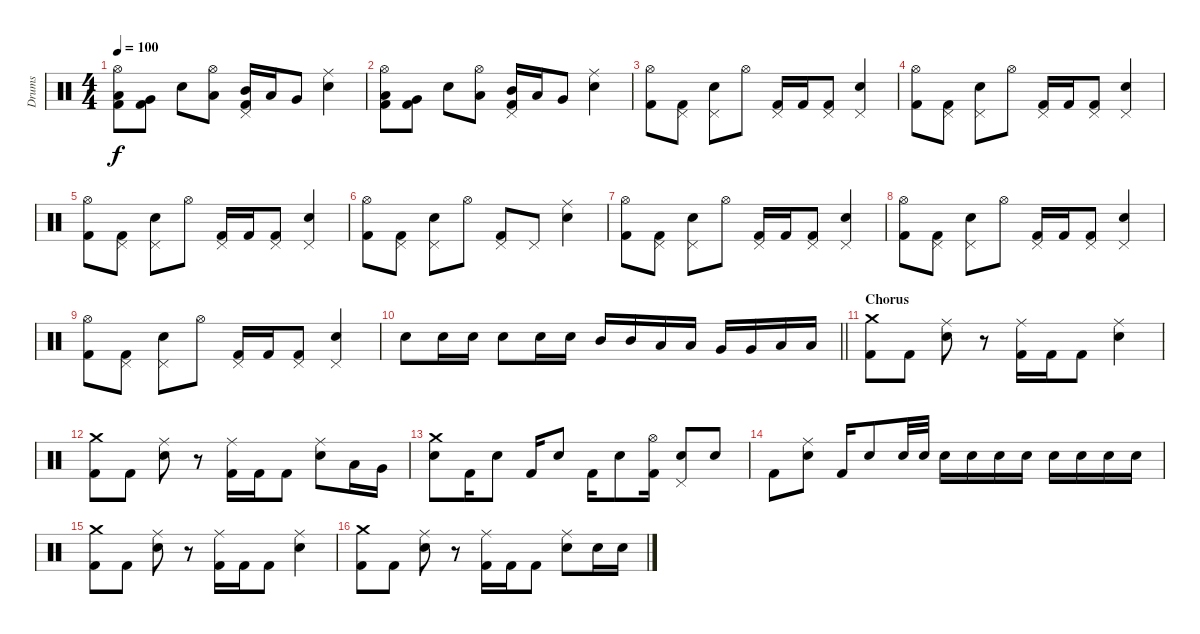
\track ("Drums" "Drums") {instrument percussion}
\staff {score}
\articulation defaults
\ts (4 4)
\tempo 100
\clef neutral
\ks c
("Hi-Hat (open)" "Low Tom (hit)" "Kick (hit) 2").8{dy f} ("Very Low Tom (hit)" "Kick (hit) 2").8 "Snare (hit) 2".8 ("Hi-Hat (open)" "Low Floor Tom (hit)").8 ("Pedal Hi-Hat (hit)" "Mid Tom (hit)" "Kick (hit) 2").16 "Low Tom (hit)".16 "Very Low Tom (hit)".8 ("Ride (middle)" "Snare (hit) 2").4 |
("Hi-Hat (open)" "Low Tom (hit)" "Kick (hit) 2").8 ("Very Low Tom (hit)" "Kick (hit) 2").8 "Snare (hit) 2".8 ("Hi-Hat (open)" "Low Floor Tom (hit)").8 ("Pedal Hi-Hat (hit)" "Mid Tom (hit)" "Kick (hit) 2").16 "Low Tom (hit)".16 "Very Low Tom (hit)".8 ("Ride (middle)" "Snare (hit) 2").4 |
("Hi-Hat (open)" "Kick (hit) 2").8 ("Pedal Hi-Hat (hit)" "Kick (hit) 2").8 ("Pedal Hi-Hat (hit)" "Snare (hit) 2").8 "Hi-Hat (open)".8 ("Pedal Hi-Hat (hit)" "Kick (hit) 2").16 "Kick (hit) 2".16 ("Pedal Hi-Hat (hit)" "Kick (hit) 2").8 ("Pedal Hi-Hat (hit)" "Snare (hit) 2").4 |
("Hi-Hat (open)" "Kick (hit) 2").8 ("Pedal Hi-Hat (hit)" "Kick (hit) 2").8 ("Pedal Hi-Hat (hit)" "Snare (hit) 2").8 "Hi-Hat (open)".8 ("Pedal Hi-Hat (hit)" "Kick (hit) 2").16 "Kick (hit) 2".16 ("Pedal Hi-Hat (hit)" "Kick (hit) 2").8 ("Pedal Hi-Hat (hit)" "Snare (hit) 2").4 |
("Hi-Hat (open)" "Kick (hit) 2").8 ("Pedal Hi-Hat (hit)" "Kick (hit) 2").8 ("Pedal Hi-Hat (hit)" "Snare (hit) 2").8 "Hi-Hat (open)".8 ("Pedal Hi-Hat (hit)" "Kick (hit) 2").16 "Kick (hit) 2".16 ("Pedal Hi-Hat (hit)" "Kick (hit) 2").8 ("Pedal Hi-Hat (hit)" "Snare (hit) 2").4 |
("Hi-Hat (open)" "Kick (hit) 2").8 ("Pedal Hi-Hat (hit)" "Kick (hit) 2").8 ("Pedal Hi-Hat (hit)" "Snare (hit) 2").8 "Hi-Hat (open)".8 ("Pedal Hi-Hat (hit)" "Kick (hit) 2").8 "Pedal Hi-Hat (hit)".8 ("Ride (middle)" "Snare (hit) 2").4 |
("Hi-Hat (open)" "Kick (hit) 2").8 ("Pedal Hi-Hat (hit)" "Kick (hit) 2").8 ("Pedal Hi-Hat (hit)" "Snare (hit) 2").8 "Hi-Hat (open)".8 ("Pedal Hi-Hat (hit)" "Kick (hit) 2").16 "Kick (hit) 2".16 ("Pedal Hi-Hat (hit)" "Kick (hit) 2").8 ("Pedal Hi-Hat (hit)" "Snare (hit) 2").4 |
("Hi-Hat (open)" "Kick (hit) 2").8 ("Pedal Hi-Hat (hit)" "Kick (hit) 2").8 ("Pedal Hi-Hat (hit)" "Snare (hit) 2").8 "Hi-Hat (open)".8 ("Pedal Hi-Hat (hit)" "Kick (hit) 2").16 "Kick (hit) 2".16 ("Pedal Hi-Hat (hit)" "Kick (hit) 2").8 ("Pedal Hi-Hat (hit)" "Snare (hit) 2").4 |
("Hi-Hat (open)" "Kick (hit) 2").8 ("Pedal Hi-Hat (hit)" "Kick (hit) 2").8 ("Pedal Hi-Hat (hit)" "Snare (hit) 2").8 "Hi-Hat (open)".8 ("Pedal Hi-Hat (hit)" "Kick (hit) 2").16 "Kick (hit) 2".16 ("Pedal Hi-Hat (hit)" "Kick (hit) 2").8 ("Pedal Hi-Hat (hit)" "Snare (hit) 2").4 |
\barLineRight lightlight "Snare (hit) 2".8 "Snare (hit) 2".16 "Snare (hit) 2".16 "Snare (hit) 2".8 "Snare (hit) 2".16 "Snare (hit) 2".16 "Mid Tom (hit)".16 "Mid Tom (hit)".16 "Low Tom (hit)".16 "Low Tom (hit)".16 "Very Low Tom (hit)".16 "Very Low Tom (hit)".16 "Low Floor Tom (hit)".16 "Low Floor Tom (hit)".16
|
\section ("" "Chorus")
("Crash medium (hit)" "Kick (hit) 2").8 "Kick (hit) 2".8 ("Ride (middle)" "Snare (hit) 2").8 r.8 ("Ride (middle)" "Kick (hit) 2").16 "Kick (hit) 2".16 "Kick (hit) 2".8 ("Ride (middle)" "Snare (hit) 2").4 |
("Crash medium (hit)" "Kick (hit) 2").8 "Kick (hit) 2".8 ("Ride (middle)" "Snare (hit) 2").8 r.8 ("Ride (middle)" "Kick (hit) 2").16 "Kick (hit) 2".16 "Kick (hit) 2".8 ("Ride (middle)" "Snare (hit) 2").8 "Low Tom (hit)".16 "Very Low Tom (hit)".16 |
("Crash medium (hit)" "Snare (hit) 2").8 "Kick (hit) 2".16 "Snare (hit) 2".8 "Kick (hit) 2".16 "Snare (hit) 2".8 "Kick (hit) 2".16 "Snare (hit) 2".8 ("Hi-Hat (open)" "Kick (hit) 2").16 ("Pedal Hi-Hat (hit)" "Snare (hit) 2").8 "Snare (hit) 2".8 |
"Kick (hit) 2".8 ("Ride (middle)" "Snare (hit) 2").8 "Kick (hit) 2".16 "Snare (hit) 2".8 "Snare (hit) 2".32 "Snare (hit) 2".32 "Snare (hit) 2".16 "Snare (hit) 2".16 "Snare (hit) 2".16 "Snare (hit) 2".16 "Snare (hit) 2".16 "Snare (hit) 2".16 "Snare (hit) 2".16 "Snare (hit) 2".16 |
("Crash medium (hit)" "Kick (hit) 2").8 "Kick (hit) 2".8 ("Ride (middle)" "Snare (hit) 2").8 r.8 ("Ride (middle)" "Kick (hit) 2").16 "Kick (hit) 2".16 "Kick (hit) 2".8 ("Ride (middle)" "Snare (hit) 2").4 |
("Crash medium (hit)" "Kick (hit) 2").8 "Kick (hit) 2".8 ("Ride (middle)" "Snare (hit) 2").8 r.8 ("Ride (middle)" "Kick (hit) 2").16 "Kick (hit) 2".16 "Kick (hit) 2".8 ("Ride (middle)" "Snare (hit) 2").8 "Snare (hit) 2".16 "Snare (hit) 2".16
